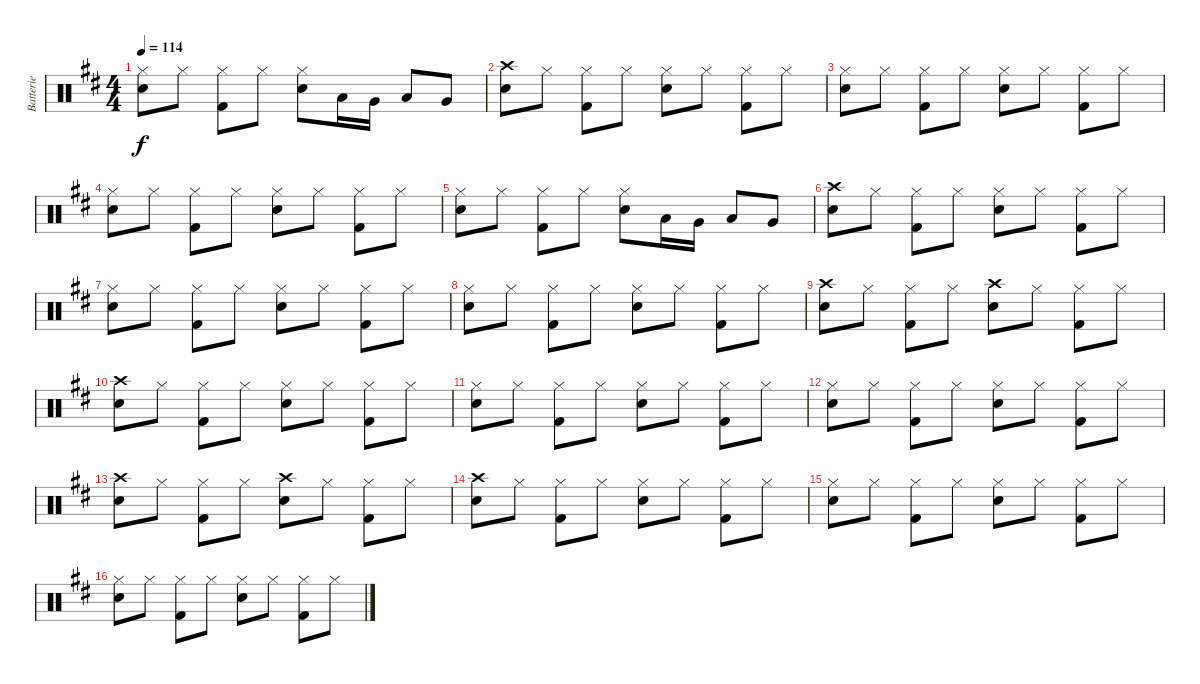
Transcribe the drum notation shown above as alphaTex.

\track ("Batterie" "Batterie") {instrument percussion}
\staff {score}
\articulation defaults
\ts (4 4)
\tempo 114
\clef neutral
\ks d
("Hi-Hat (closed)" "Snare (hit) 2").8{dy f} "Hi-Hat (closed)".8 ("Hi-Hat (closed)" "Kick (hit) 2").8 "Hi-Hat (closed)".8 ("Hi-Hat (closed)" "Snare (hit) 2").8 "Low Tom (hit)".16 "Very Low Tom (hit)".16 "Low Floor Tom (hit)".8 "Very Low Tom (hit)".8 |
("Crash high (hit)" "Snare (hit) 2").8 "Hi-Hat (closed)".8 ("Hi-Hat (closed)" "Kick (hit) 2").8 "Hi-Hat (closed)".8 ("Hi-Hat (closed)" "Snare (hit) 2").8 "Hi-Hat (closed)".8 ("Hi-Hat (closed)" "Kick (hit) 2").8 "Hi-Hat (closed)".8 |
("Hi-Hat (closed)" "Snare (hit) 2").8 "Hi-Hat (closed)".8 ("Hi-Hat (closed)" "Kick (hit) 2").8 "Hi-Hat (closed)".8 ("Hi-Hat (closed)" "Snare (hit) 2").8 "Hi-Hat (closed)".8 ("Hi-Hat (closed)" "Kick (hit) 2").8 "Hi-Hat (closed)".8 |
("Hi-Hat (closed)" "Snare (hit) 2").8 "Hi-Hat (closed)".8 ("Hi-Hat (closed)" "Kick (hit) 2").8 "Hi-Hat (closed)".8 ("Hi-Hat (closed)" "Snare (hit) 2").8 "Hi-Hat (closed)".8 ("Hi-Hat (closed)" "Kick (hit) 2").8 "Hi-Hat (closed)".8 |
("Hi-Hat (closed)" "Snare (hit) 2").8 "Hi-Hat (closed)".8 ("Hi-Hat (closed)" "Kick (hit) 2").8 "Hi-Hat (closed)".8 ("Hi-Hat (closed)" "Snare (hit) 2").8 "Low Tom (hit)".16 "Very Low Tom (hit)".16 "Low Floor Tom (hit)".8 "Very Low Tom (hit)".8 |
("Crash high (hit)" "Snare (hit) 2").8 "Hi-Hat (closed)".8 ("Hi-Hat (closed)" "Kick (hit) 2").8 "Hi-Hat (closed)".8 ("Hi-Hat (closed)" "Snare (hit) 2").8 "Hi-Hat (closed)".8 ("Hi-Hat (closed)" "Kick (hit) 2").8 "Hi-Hat (closed)".8 |
("Hi-Hat (closed)" "Snare (hit) 2").8 "Hi-Hat (closed)".8 ("Hi-Hat (closed)" "Kick (hit) 2").8 "Hi-Hat (closed)".8 ("Hi-Hat (closed)" "Snare (hit) 2").8 "Hi-Hat (closed)".8 ("Hi-Hat (closed)" "Kick (hit) 2").8 "Hi-Hat (closed)".8 |
("Hi-Hat (closed)" "Snare (hit) 2").8 "Hi-Hat (closed)".8 ("Hi-Hat (closed)" "Kick (hit) 2").8 "Hi-Hat (closed)".8 ("Hi-Hat (closed)" "Snare (hit) 2").8 "Hi-Hat (closed)".8 ("Hi-Hat (closed)" "Kick (hit) 2").8 "Hi-Hat (closed)".8 |
("Crash high (hit)" "Snare (hit) 2").8 "Hi-Hat (closed)".8 ("Hi-Hat (closed)" "Kick (hit) 2").8 "Hi-Hat (closed)".8 ("Crash high (hit)" "Snare (hit) 2").8 "Hi-Hat (closed)".8 ("Hi-Hat (closed)" "Kick (hit) 2").8 "Hi-Hat (closed)".8 |
("Crash high (hit)" "Snare (hit) 2").8 "Hi-Hat (closed)".8 ("Hi-Hat (closed)" "Kick (hit) 2").8 "Hi-Hat (closed)".8 ("Hi-Hat (closed)" "Snare (hit) 2").8 "Hi-Hat (closed)".8 ("Hi-Hat (closed)" "Kick (hit) 2").8 "Hi-Hat (closed)".8 |
("Hi-Hat (closed)" "Snare (hit) 2").8 "Hi-Hat (closed)".8 ("Hi-Hat (closed)" "Kick (hit) 2").8 "Hi-Hat (closed)".8 ("Hi-Hat (closed)" "Snare (hit) 2").8 "Hi-Hat (closed)".8 ("Hi-Hat (closed)" "Kick (hit) 2").8 "Hi-Hat (closed)".8 |
("Hi-Hat (closed)" "Snare (hit) 2").8 "Hi-Hat (closed)".8 ("Hi-Hat (closed)" "Kick (hit) 2").8 "Hi-Hat (closed)".8 ("Hi-Hat (closed)" "Snare (hit) 2").8 "Hi-Hat (closed)".8 ("Hi-Hat (closed)" "Kick (hit) 2").8 "Hi-Hat (closed)".8 |
("Crash high (hit)" "Snare (hit) 2").8 "Hi-Hat (closed)".8 ("Hi-Hat (closed)" "Kick (hit) 2").8 "Hi-Hat (closed)".8 ("Crash high (hit)" "Snare (hit) 2").8 "Hi-Hat (closed)".8 ("Hi-Hat (closed)" "Kick (hit) 2").8 "Hi-Hat (closed)".8 |
("Crash high (hit)" "Snare (hit) 2").8 "Hi-Hat (closed)".8 ("Hi-Hat (closed)" "Kick (hit) 2").8 "Hi-Hat (closed)".8 ("Hi-Hat (closed)" "Snare (hit) 2").8 "Hi-Hat (closed)".8 ("Hi-Hat (closed)" "Kick (hit) 2").8 "Hi-Hat (closed)".8 |
("Hi-Hat (closed)" "Snare (hit) 2").8 "Hi-Hat (closed)".8 ("Hi-Hat (closed)" "Kick (hit) 2").8 "Hi-Hat (closed)".8 ("Hi-Hat (closed)" "Snare (hit) 2").8 "Hi-Hat (closed)".8 ("Hi-Hat (closed)" "Kick (hit) 2").8 "Hi-Hat (closed)".8 |
("Hi-Hat (closed)" "Snare (hit) 2").8 "Hi-Hat (closed)".8 ("Hi-Hat (closed)" "Kick (hit) 2").8 "Hi-Hat (closed)".8 ("Hi-Hat (closed)" "Snare (hit) 2").8 "Hi-Hat (closed)".8 ("Hi-Hat (closed)" "Kick (hit) 2").8 "Hi-Hat (closed)".8
